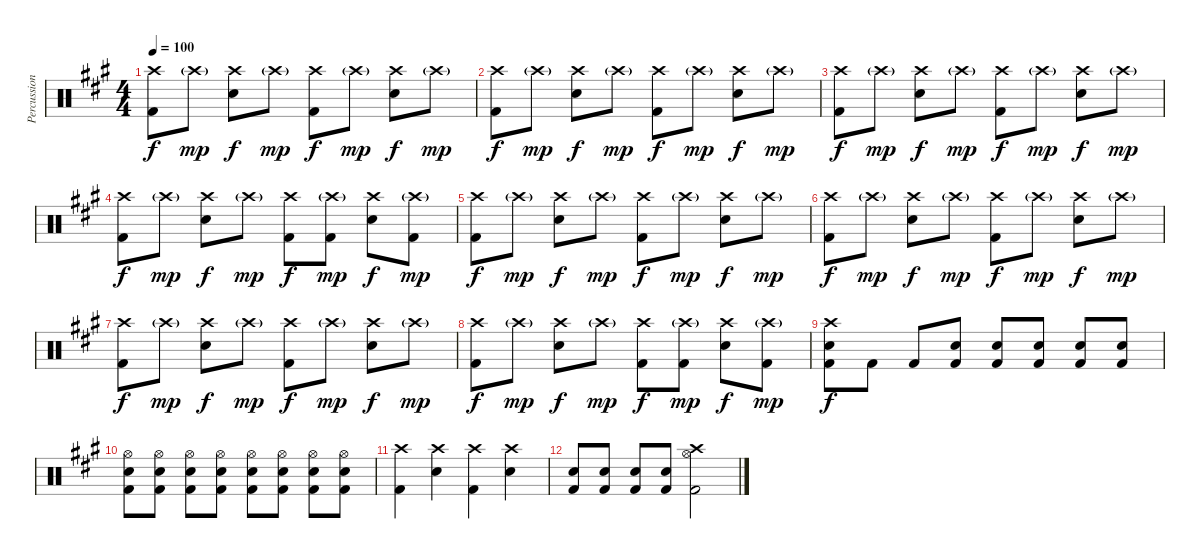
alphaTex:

\track ("Percussion" "Percussion") {instrument percussion}
\staff {score}
\articulation defaults
\ts (4 4)
\tempo 100
\clef neutral
\ks a
("Crash high (hit)" "Kick (hit) 2").8{dy f} "Crash high (hit)"{g}.8{dy mp} ("Crash high (hit)" "Snare (hit) 2").8{dy f} "Crash high (hit)"{g}.8{dy mp} ("Crash high (hit)" "Kick (hit) 2").8{dy f} "Crash high (hit)"{g}.8{dy mp} ("Crash high (hit)" "Snare (hit) 2").8{dy f} "Crash high (hit)"{g}.8{dy mp} |
("Crash high (hit)" "Kick (hit) 2").8{dy f} "Crash high (hit)"{g}.8{dy mp} ("Crash high (hit)" "Snare (hit) 2").8{dy f} "Crash high (hit)"{g}.8{dy mp} ("Crash high (hit)" "Kick (hit) 2").8{dy f} "Crash high (hit)"{g}.8{dy mp} ("Crash high (hit)" "Snare (hit) 2").8{dy f} "Crash high (hit)"{g}.8{dy mp} |
("Crash high (hit)" "Kick (hit) 2").8{dy f} "Crash high (hit)"{g}.8{dy mp} ("Crash high (hit)" "Snare (hit) 2").8{dy f} "Crash high (hit)"{g}.8{dy mp} ("Crash high (hit)" "Kick (hit) 2").8{dy f} "Crash high (hit)"{g}.8{dy mp} ("Crash high (hit)" "Snare (hit) 2").8{dy f} "Crash high (hit)"{g}.8{dy mp} |
("Crash high (hit)" "Kick (hit) 2").8{dy f} "Crash high (hit)"{g}.8{dy mp} ("Crash high (hit)" "Snare (hit) 2").8{dy f} "Crash high (hit)"{g}.8{dy mp} ("Crash high (hit)" "Kick (hit) 2").8{dy f} ("Crash high (hit)"{g} "Kick (hit) 2").8{dy mp} ("Crash high (hit)" "Snare (hit) 2").8{dy f} ("Crash high (hit)"{g} "Kick (hit) 2").8{dy mp} |
("Crash high (hit)" "Kick (hit) 2").8{dy f} "Crash high (hit)"{g}.8{dy mp} ("Crash high (hit)" "Snare (hit) 2").8{dy f} "Crash high (hit)"{g}.8{dy mp} ("Crash high (hit)" "Kick (hit) 2").8{dy f} "Crash high (hit)"{g}.8{dy mp} ("Crash high (hit)" "Snare (hit) 2").8{dy f} "Crash high (hit)"{g}.8{dy mp} |
("Crash high (hit)" "Kick (hit) 2").8{dy f} "Crash high (hit)"{g}.8{dy mp} ("Crash high (hit)" "Snare (hit) 2").8{dy f} "Crash high (hit)"{g}.8{dy mp} ("Crash high (hit)" "Kick (hit) 2").8{dy f} "Crash high (hit)"{g}.8{dy mp} ("Crash high (hit)" "Snare (hit) 2").8{dy f} "Crash high (hit)"{g}.8{dy mp} |
("Crash high (hit)" "Kick (hit) 2").8{dy f} "Crash high (hit)"{g}.8{dy mp} ("Crash high (hit)" "Snare (hit) 2").8{dy f} "Crash high (hit)"{g}.8{dy mp} ("Crash high (hit)" "Kick (hit) 2").8{dy f} "Crash high (hit)"{g}.8{dy mp} ("Crash high (hit)" "Snare (hit) 2").8{dy f} "Crash high (hit)"{g}.8{dy mp} |
("Crash high (hit)" "Kick (hit) 2").8{dy f} "Crash high (hit)"{g}.8{dy mp} ("Crash high (hit)" "Snare (hit) 2").8{dy f} "Crash high (hit)"{g}.8{dy mp} ("Crash high (hit)" "Kick (hit) 2").8{dy f} ("Crash high (hit)"{g} "Kick (hit) 2").8{dy mp} ("Crash high (hit)" "Snare (hit) 2").8{dy f} ("Crash high (hit)"{g} "Kick (hit) 2").8{dy mp} |
("Crash high (hit)" "Snare (hit) 2" "Kick (hit) 2").8{dy f} "Kick (hit) 2".8 "Kick (hit) 2".8 ("Snare (hit) 2" "Kick (hit) 2").8 ("Snare (hit) 2" "Kick (hit) 2").8 ("Snare (hit) 2" "Kick (hit) 2").8 ("Snare (hit) 2" "Kick (hit) 2").8 ("Snare (hit) 2" "Kick (hit) 2").8 |
("Hi-Hat (open)" "Snare (hit) 2" "Kick (hit) 2").8 ("Hi-Hat (open)" "Snare (hit) 2" "Kick (hit) 2").8 ("Hi-Hat (open)" "Snare (hit) 2" "Kick (hit) 2").8 ("Hi-Hat (open)" "Snare (hit) 2" "Kick (hit) 2").8 ("Hi-Hat (open)" "Snare (hit) 2" "Kick (hit) 2").8 ("Hi-Hat (open)" "Snare (hit) 2" "Kick (hit) 2").8 ("Hi-Hat (open)" "Snare (hit) 2" "Kick (hit) 2").8 ("Hi-Hat (open)" "Snare (hit) 2" "Kick (hit) 2").8 |
("Crash high (hit)" "Kick (hit) 2").4 ("Crash high (hit)" "Snare (hit) 2").4 ("Crash high (hit)" "Kick (hit) 2").4 ("Crash high (hit)" "Snare (hit) 2").4 |
("Snare (hit) 2" "Kick (hit) 2").8 ("Snare (hit) 2" "Kick (hit) 2").8 ("Snare (hit) 2" "Kick (hit) 2").8 ("Snare (hit) 2" "Kick (hit) 2").8 ("Crash high (hit)" "Hi-Hat (open)" "Kick (hit) 2").2
